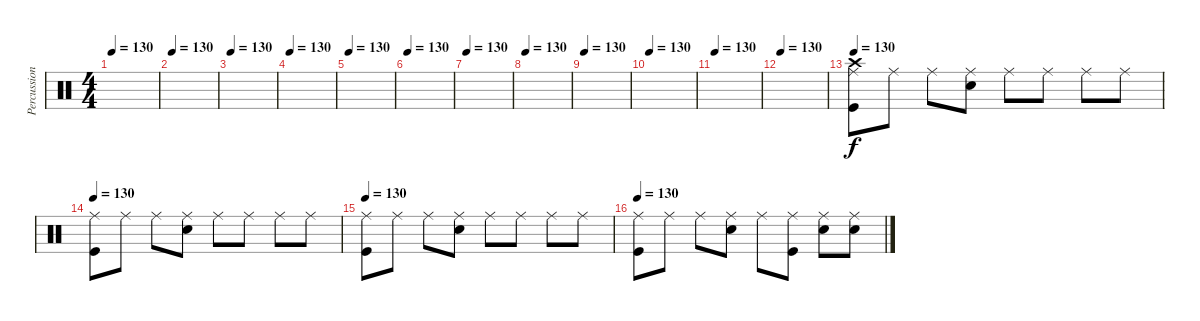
\track ("Percussion" "Percussion") {instrument percussion}
\staff {score}
\articulation defaults
\ts (4 4)
\tempo 130
\clef neutral
\ks c
|
\tempo 130
|
\tempo 130
|
\tempo 130
|
\tempo 130
|
\tempo 130
|
\tempo 130
|
\tempo 130
|
\tempo 130
|
\tempo 130
|
\tempo 130
|
\tempo 130
|
\tempo 130
("Crash high (hit)" "Ride (middle)" "Kick (hit)").8 "Ride (middle)".8 "Ride (middle)".8 ("Ride (middle)" "Electric Snare (hit)").8 "Ride (middle)".8 "Ride (middle)".8 "Ride (middle)".8 "Ride (middle)".8 |
\tempo 130
("Ride (middle)" "Kick (hit)").8 "Ride (middle)".8 "Ride (middle)".8 ("Ride (middle)" "Electric Snare (hit)").8 "Ride (middle)".8 "Ride (middle)".8 "Ride (middle)".8 "Ride (middle)".8 |
\tempo 130
("Ride (middle)" "Kick (hit)").8 "Ride (middle)".8 "Ride (middle)".8 ("Ride (middle)" "Electric Snare (hit)").8 "Ride (middle)".8 "Ride (middle)".8 "Ride (middle)".8 "Ride (middle)".8 |
\tempo 130
("Ride (middle)" "Kick (hit)").8 "Ride (middle)".8 "Ride (middle)".8 ("Ride (middle)" "Electric Snare (hit)").8 "Ride (middle)".8 ("Ride (middle)" "Kick (hit)").8 ("Ride (middle)" "Electric Snare (hit)").8 ("Ride (middle)" "Electric Snare (hit)").8
